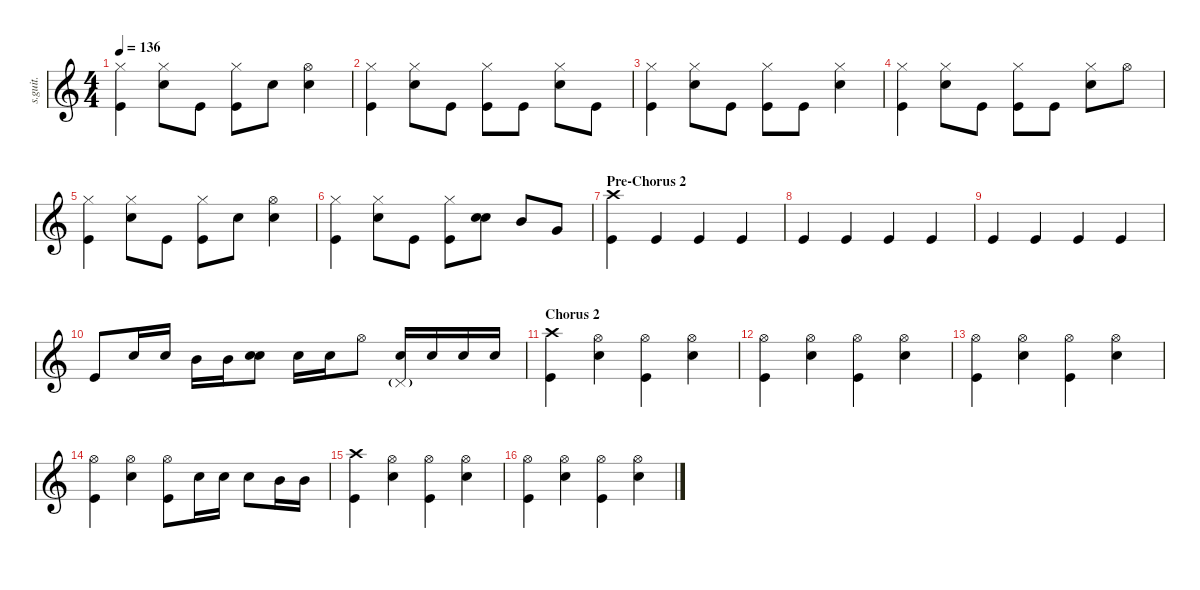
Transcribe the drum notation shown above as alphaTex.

\defaultSystemsLayout 4
\hideDynamics
\bracketExtendMode nobrackets
\track ("Ilan Rubin" "s.guit.") {instrument percussion}
\staff {score}
\articulation defaults
\ts (4 4)
\tempo 136
\clef g2
\ks c
("Hi-Hat (closed)" "Kick (hit)").4{lyrics (0 "") lyrics (1 "") lyrics (2 "") lyrics (3 "") lyrics (4 "") dy f} ("Hi-Hat (closed)" "Electric Snare (hit)").8{lyrics (0 "") lyrics (1 "") lyrics (2 "") lyrics (3 "") lyrics (4 "")} "Kick (hit)".8{lyrics (0 "") lyrics (1 "") lyrics (2 "") lyrics (3 "") lyrics (4 "") dy ff} ("Hi-Hat (closed)" "Kick (hit)").8{lyrics (0 "") lyrics (1 "") lyrics (2 "") lyrics (3 "") lyrics (4 "")} "Electric Snare (hit)".8{lyrics (0 "") lyrics (1 "") lyrics (2 "") lyrics (3 "") lyrics (4 "") dy f} ("Hi-Hat (open)" "Electric Snare (hit)").4{lyrics (0 "") lyrics (1 "") lyrics (2 "") lyrics (3 "") lyrics (4 "")} |
("Hi-Hat (closed)" "Kick (hit)").4{lyrics (0 "") lyrics (1 "") lyrics (2 "") lyrics (3 "") lyrics (4 "")} ("Hi-Hat (closed)" "Electric Snare (hit)").8{lyrics (0 "") lyrics (1 "") lyrics (2 "") lyrics (3 "") lyrics (4 "")} "Kick (hit)".8{lyrics (0 "") lyrics (1 "") lyrics (2 "") lyrics (3 "") lyrics (4 "") dy ff} ("Hi-Hat (closed)" "Kick (hit)").8{lyrics (0 "") lyrics (1 "") lyrics (2 "") lyrics (3 "") lyrics (4 "")} "Kick (hit)".8{lyrics (0 "") lyrics (1 "") lyrics (2 "") lyrics (3 "") lyrics (4 "")} ("Hi-Hat (closed)" "Electric Snare (hit)").8{lyrics (0 "") lyrics (1 "") lyrics (2 "") lyrics (3 "") lyrics (4 "") dy f} "Kick (hit)".8{lyrics (0 "") lyrics (1 "") lyrics (2 "") lyrics (3 "") lyrics (4 "") dy ff} |
("Hi-Hat (closed)" "Kick (hit)").4{lyrics (0 "") lyrics (1 "") lyrics (2 "") lyrics (3 "") lyrics (4 "")} ("Hi-Hat (closed)" "Electric Snare (hit)").8{lyrics (0 "") lyrics (1 "") lyrics (2 "") lyrics (3 "") lyrics (4 "") dy f} "Kick (hit)".8{lyrics (0 "") lyrics (1 "") lyrics (2 "") lyrics (3 "") lyrics (4 "") dy ff} ("Hi-Hat (closed)" "Kick (hit)").8{lyrics (0 "") lyrics (1 "") lyrics (2 "") lyrics (3 "") lyrics (4 "")} "Kick (hit)".8{lyrics (0 "") lyrics (1 "") lyrics (2 "") lyrics (3 "") lyrics (4 "")} ("Hi-Hat (closed)" "Electric Snare (hit)").4{lyrics (0 "") lyrics (1 "") lyrics (2 "") lyrics (3 "") lyrics (4 "") dy f} |
("Hi-Hat (closed)" "Kick (hit)").4{lyrics (0 "") lyrics (1 "") lyrics (2 "") lyrics (3 "") lyrics (4 "")} ("Hi-Hat (closed)" "Electric Snare (hit)").8{lyrics (0 "") lyrics (1 "") lyrics (2 "") lyrics (3 "") lyrics (4 "")} "Kick (hit)".8{lyrics (0 "") lyrics (1 "") lyrics (2 "") lyrics (3 "") lyrics (4 "") dy ff} ("Hi-Hat (closed)" "Kick (hit)").8{lyrics (0 "") lyrics (1 "") lyrics (2 "") lyrics (3 "") lyrics (4 "")} "Kick (hit)".8{lyrics (0 "") lyrics (1 "") lyrics (2 "") lyrics (3 "") lyrics (4 "")} ("Hi-Hat (closed)" "Electric Snare (hit)").8{lyrics (0 "") lyrics (1 "") lyrics (2 "") lyrics (3 "") lyrics (4 "") dy f} "Hi-Hat (open)".8{lyrics (0 "") lyrics (1 "") lyrics (2 "") lyrics (3 "") lyrics (4 "")} |
("Hi-Hat (closed)" "Kick (hit)").4{lyrics (0 "") lyrics (1 "") lyrics (2 "") lyrics (3 "") lyrics (4 "")} ("Hi-Hat (closed)" "Electric Snare (hit)").8{lyrics (0 "") lyrics (1 "") lyrics (2 "") lyrics (3 "") lyrics (4 "")} "Kick (hit)".8{lyrics (0 "") lyrics (1 "") lyrics (2 "") lyrics (3 "") lyrics (4 "") dy ff} ("Hi-Hat (closed)" "Kick (hit)").8{lyrics (0 "") lyrics (1 "") lyrics (2 "") lyrics (3 "") lyrics (4 "")} "Electric Snare (hit)".8{lyrics (0 "") lyrics (1 "") lyrics (2 "") lyrics (3 "") lyrics (4 "") dy f} ("Hi-Hat (open)" "Electric Snare (hit)").4{lyrics (0 "") lyrics (1 "") lyrics (2 "") lyrics (3 "") lyrics (4 "")} |
("Hi-Hat (closed)" "Kick (hit)").4{lyrics (0 "") lyrics (1 "") lyrics (2 "") lyrics (3 "") lyrics (4 "")} ("Hi-Hat (closed)" "Electric Snare (hit)").8{lyrics (0 "") lyrics (1 "") lyrics (2 "") lyrics (3 "") lyrics (4 "")} "Kick (hit)".8{lyrics (0 "") lyrics (1 "") lyrics (2 "") lyrics (3 "") lyrics (4 "") dy ff} ("Hi-Hat (closed)" "Kick (hit)").8{lyrics (0 "") lyrics (1 "") lyrics (2 "") lyrics (3 "") lyrics (4 "")} ("Electric Snare (hit)" "Electric Snare (hit)").8{bd 30 lyrics (0 "") lyrics (1 "") lyrics (2 "") lyrics (3 "") lyrics (4 "") dy f} "Mid Tom (hit)".8{lyrics (0 "") lyrics (1 "") lyrics (2 "") lyrics (3 "") lyrics (4 "")} "Very Low Tom (hit)".8{lyrics (0 "") lyrics (1 "") lyrics (2 "") lyrics (3 "") lyrics (4 "")} |
\section ("" "Pre-Chorus 2")
("Crash high (hit)" "Kick (hit)").4{lyrics (0 "") lyrics (1 "") lyrics (2 "") lyrics (3 "") lyrics (4 "")} "Kick (hit)".4{lyrics (0 "") lyrics (1 "") lyrics (2 "") lyrics (3 "") lyrics (4 "") dy ff} "Kick (hit)".4{lyrics (0 "") lyrics (1 "") lyrics (2 "") lyrics (3 "") lyrics (4 "")} "Kick (hit)".4{lyrics (0 "") lyrics (1 "") lyrics (2 "") lyrics (3 "") lyrics (4 "")} |
"Kick (hit)".4{lyrics (0 "") lyrics (1 "") lyrics (2 "") lyrics (3 "") lyrics (4 "")} "Kick (hit)".4{lyrics (0 "") lyrics (1 "") lyrics (2 "") lyrics (3 "") lyrics (4 "")} "Kick (hit)".4{lyrics (0 "") lyrics (1 "") lyrics (2 "") lyrics (3 "") lyrics (4 "")} "Kick (hit)".4{lyrics (0 "") lyrics (1 "") lyrics (2 "") lyrics (3 "") lyrics (4 "")} |
"Kick (hit)".4{lyrics (0 "") lyrics (1 "") lyrics (2 "") lyrics (3 "") lyrics (4 "")} "Kick (hit)".4{lyrics (0 "") lyrics (1 "") lyrics (2 "") lyrics (3 "") lyrics (4 "")} "Kick (hit)".4{lyrics (0 "") lyrics (1 "") lyrics (2 "") lyrics (3 "") lyrics (4 "")} "Kick (hit)".4{lyrics (0 "") lyrics (1 "") lyrics (2 "") lyrics (3 "") lyrics (4 "")} |
"Kick (hit)".8{lyrics (0 "") lyrics (1 "") lyrics (2 "") lyrics (3 "") lyrics (4 "")} "Electric Snare (hit)".16{lyrics (0 "") lyrics (1 "") lyrics (2 "") lyrics (3 "") lyrics (4 "") dy f} "Electric Snare (hit)".16{lyrics (0 "") lyrics (1 "") lyrics (2 "") lyrics (3 "") lyrics (4 "")} "Mid Tom (hit)".16{lyrics (0 "") lyrics (1 "") lyrics (2 "") lyrics (3 "") lyrics (4 "")} "Mid Tom (hit)".16{lyrics (0 "") lyrics (1 "") lyrics (2 "") lyrics (3 "") lyrics (4 "")} ("Electric Snare (hit)" "Electric Snare (hit)").8{bd 30 lyrics (0 "") lyrics (1 "") lyrics (2 "") lyrics (3 "") lyrics (4 "")} "Electric Snare (hit)".16{lyrics (0 "") lyrics (1 "") lyrics (2 "") lyrics (3 "") lyrics (4 "")} "Electric Snare (hit)".16{lyrics (0 "") lyrics (1 "") lyrics (2 "") lyrics (3 "") lyrics (4 "")} "Hi-Hat (open)".8{lyrics (0 "") lyrics (1 "") lyrics (2 "") lyrics (3 "") lyrics (4 "")} ("Electric Snare (hit)" "Pedal Hi-Hat (hit)"{g}).16{lyrics (0 "") lyrics (1 "") lyrics (2 "") lyrics (3 "") lyrics (4 "")} "Electric Snare (hit)".16{lyrics (0 "") lyrics (1 "") lyrics (2 "") lyrics (3 "") lyrics (4 "")} "Electric Snare (hit)".16{lyrics (0 "") lyrics (1 "") lyrics (2 "") lyrics (3 "") lyrics (4 "")} "Electric Snare (hit)".16{lyrics (0 "") lyrics (1 "") lyrics (2 "") lyrics (3 "") lyrics (4 "")} |
\section ("" "Chorus 2")
("Crash high (hit)" "Kick (hit)").4{lyrics (0 "") lyrics (1 "") lyrics (2 "") lyrics (3 "") lyrics (4 "")} ("Hi-Hat (open)" "Electric Snare (hit)").4{lyrics (0 "") lyrics (1 "") lyrics (2 "") lyrics (3 "") lyrics (4 "")} ("Hi-Hat (open)" "Kick (hit)").4{lyrics (0 "") lyrics (1 "") lyrics (2 "") lyrics (3 "") lyrics (4 "")} ("Hi-Hat (open)" "Electric Snare (hit)").4{lyrics (0 "") lyrics (1 "") lyrics (2 "") lyrics (3 "") lyrics (4 "")} |
("Hi-Hat (open)" "Kick (hit)").4{lyrics (0 "") lyrics (1 "") lyrics (2 "") lyrics (3 "") lyrics (4 "")} ("Hi-Hat (open)" "Electric Snare (hit)").4{lyrics (0 "") lyrics (1 "") lyrics (2 "") lyrics (3 "") lyrics (4 "")} ("Hi-Hat (open)" "Kick (hit)").4{lyrics (0 "") lyrics (1 "") lyrics (2 "") lyrics (3 "") lyrics (4 "")} ("Hi-Hat (open)" "Electric Snare (hit)").4{lyrics (0 "") lyrics (1 "") lyrics (2 "") lyrics (3 "") lyrics (4 "")} |
("Hi-Hat (open)" "Kick (hit)").4{lyrics (0 "") lyrics (1 "") lyrics (2 "") lyrics (3 "") lyrics (4 "")} ("Hi-Hat (open)" "Electric Snare (hit)").4{lyrics (0 "") lyrics (1 "") lyrics (2 "") lyrics (3 "") lyrics (4 "")} ("Hi-Hat (open)" "Kick (hit)").4{lyrics (0 "") lyrics (1 "") lyrics (2 "") lyrics (3 "") lyrics (4 "")} ("Hi-Hat (open)" "Electric Snare (hit)").4{lyrics (0 "") lyrics (1 "") lyrics (2 "") lyrics (3 "") lyrics (4 "")} |
("Hi-Hat (open)" "Kick (hit)").4{lyrics (0 "") lyrics (1 "") lyrics (2 "") lyrics (3 "") lyrics (4 "")} ("Hi-Hat (open)" "Electric Snare (hit)").4{lyrics (0 "") lyrics (1 "") lyrics (2 "") lyrics (3 "") lyrics (4 "")} ("Hi-Hat (open)" "Kick (hit)").8{lyrics (0 "") lyrics (1 "") lyrics (2 "") lyrics (3 "") lyrics (4 "")} "Electric Snare (hit)".16{lyrics (0 "") lyrics (1 "") lyrics (2 "") lyrics (3 "") lyrics (4 "")} "Electric Snare (hit)".16{lyrics (0 "") lyrics (1 "") lyrics (2 "") lyrics (3 "") lyrics (4 "")} "Electric Snare (hit)".8{lyrics (0 "") lyrics (1 "") lyrics (2 "") lyrics (3 "") lyrics (4 "")} "Mid Tom (hit)".16{lyrics (0 "") lyrics (1 "") lyrics (2 "") lyrics (3 "") lyrics (4 "")} "Mid Tom (hit)".16{lyrics (0 "") lyrics (1 "") lyrics (2 "") lyrics (3 "") lyrics (4 "")} |
("Crash high (hit)" "Kick (hit)").4{lyrics (0 "") lyrics (1 "") lyrics (2 "") lyrics (3 "") lyrics (4 "")} ("Hi-Hat (open)" "Electric Snare (hit)").4{lyrics (0 "") lyrics (1 "") lyrics (2 "") lyrics (3 "") lyrics (4 "")} ("Hi-Hat (open)" "Kick (hit)").4{lyrics (0 "") lyrics (1 "") lyrics (2 "") lyrics (3 "") lyrics (4 "")} ("Hi-Hat (open)" "Electric Snare (hit)").4{lyrics (0 "") lyrics (1 "") lyrics (2 "") lyrics (3 "") lyrics (4 "")} |
("Hi-Hat (open)" "Kick (hit)").4{lyrics (0 "") lyrics (1 "") lyrics (2 "") lyrics (3 "") lyrics (4 "")} ("Hi-Hat (open)" "Electric Snare (hit)").4{lyrics (0 "") lyrics (1 "") lyrics (2 "") lyrics (3 "") lyrics (4 "")} ("Hi-Hat (open)" "Kick (hit)").4{lyrics (0 "") lyrics (1 "") lyrics (2 "") lyrics (3 "") lyrics (4 "")} ("Hi-Hat (open)" "Electric Snare (hit)").4{lyrics (0 "") lyrics (1 "") lyrics (2 "") lyrics (3 "") lyrics (4 "")}
